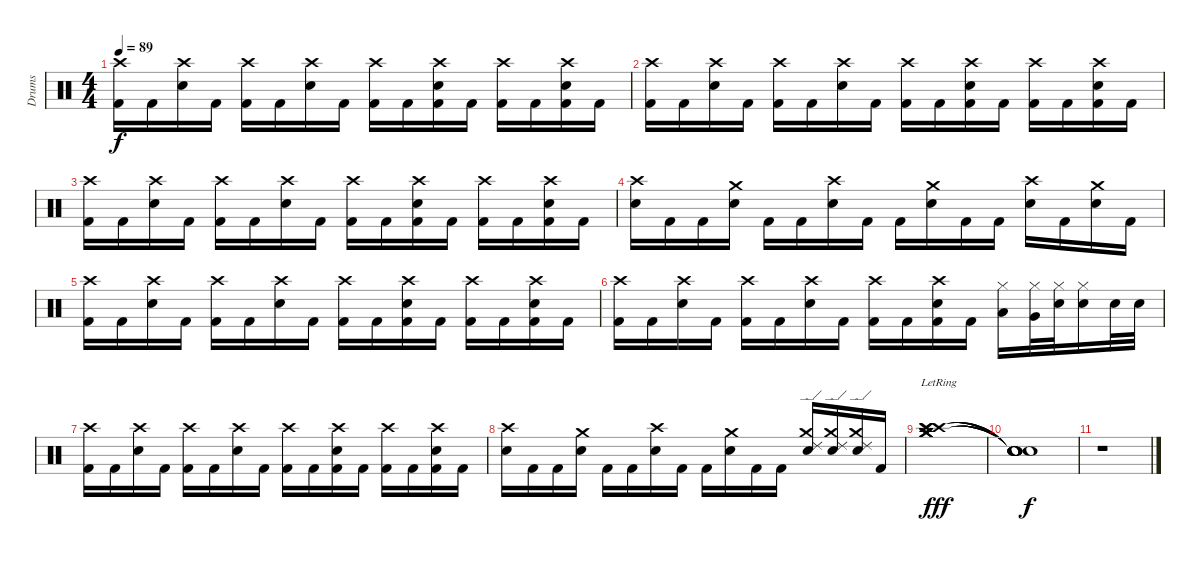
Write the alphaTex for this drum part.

\track ("Drums" "Drums") {instrument percussion}
\staff {score}
\articulation defaults
\ts (4 4)
\tempo 89
\clef neutral
\ks c
("Crash high (hit)" "Kick (hit) 2").16{dy f} "Kick (hit) 2".16 ("Crash high (hit)" "Electric Snare (hit)").16 "Kick (hit) 2".16 ("Crash high (hit)" "Kick (hit) 2").16 "Kick (hit) 2".16 ("Crash high (hit)" "Electric Snare (hit)").16 "Kick (hit) 2".16 ("Crash high (hit)" "Kick (hit) 2").16 "Kick (hit) 2".16 ("Crash high (hit)" "Electric Snare (hit)" "Kick (hit) 2").16 "Kick (hit) 2".16 ("Crash high (hit)" "Kick (hit) 2").16 "Kick (hit) 2".16 ("Crash high (hit)" "Electric Snare (hit)" "Kick (hit) 2").16 "Kick (hit) 2".16 |
("Crash high (hit)" "Kick (hit) 2").16 "Kick (hit) 2".16 ("Crash high (hit)" "Electric Snare (hit)").16 "Kick (hit) 2".16 ("Crash high (hit)" "Kick (hit) 2").16 "Kick (hit) 2".16 ("Crash high (hit)" "Electric Snare (hit)").16 "Kick (hit) 2".16 ("Crash high (hit)" "Kick (hit) 2").16 "Kick (hit) 2".16 ("Crash high (hit)" "Electric Snare (hit)" "Kick (hit) 2").16 "Kick (hit) 2".16 ("Crash high (hit)" "Kick (hit) 2").16 "Kick (hit) 2".16 ("Crash high (hit)" "Electric Snare (hit)" "Kick (hit) 2").16 "Kick (hit) 2".16 |
("Crash high (hit)" "Kick (hit) 2").16 "Kick (hit) 2".16 ("Crash high (hit)" "Electric Snare (hit)").16 "Kick (hit) 2".16 ("Crash high (hit)" "Kick (hit) 2").16 "Kick (hit) 2".16 ("Crash high (hit)" "Electric Snare (hit)").16 "Kick (hit) 2".16 ("Crash high (hit)" "Kick (hit) 2").16 "Kick (hit) 2".16 ("Crash high (hit)" "Electric Snare (hit)" "Kick (hit) 2").16 "Kick (hit) 2".16 ("Crash high (hit)" "Kick (hit) 2").16 "Kick (hit) 2".16 ("Crash high (hit)" "Electric Snare (hit)" "Kick (hit) 2").16 "Kick (hit) 2".16 |
("Crash high (hit)" "Electric Snare (hit)").16 "Kick (hit) 2".16 "Kick (hit) 2".16 ("Crash medium (hit)" "Electric Snare (hit)").16 "Kick (hit) 2".16 "Kick (hit) 2".16 ("Crash high (hit)" "Electric Snare (hit)").16 "Kick (hit) 2".16 "Kick (hit) 2".16 ("Crash medium (hit)" "Electric Snare (hit)").16 "Kick (hit) 2".16 "Kick (hit) 2".16 ("Crash high (hit)" "Electric Snare (hit)").16 "Kick (hit) 2".16 ("Crash medium (hit)" "Electric Snare (hit)").16 "Kick (hit) 2".16 |
("Crash high (hit)" "Kick (hit) 2").16 "Kick (hit) 2".16 ("Crash high (hit)" "Electric Snare (hit)").16 "Kick (hit) 2".16 ("Crash high (hit)" "Kick (hit) 2").16 "Kick (hit) 2".16 ("Crash high (hit)" "Electric Snare (hit)").16 "Kick (hit) 2".16 ("Crash high (hit)" "Kick (hit) 2").16 "Kick (hit) 2".16 ("Crash high (hit)" "Electric Snare (hit)" "Kick (hit) 2").16 "Kick (hit) 2".16 ("Crash high (hit)" "Kick (hit) 2").16 "Kick (hit) 2".16 ("Crash high (hit)" "Electric Snare (hit)" "Kick (hit) 2").16 "Kick (hit) 2".16 |
("Crash high (hit)" "Kick (hit) 2").16 "Kick (hit) 2".16 ("Crash high (hit)" "Electric Snare (hit)").16 "Kick (hit) 2".16 ("Crash high (hit)" "Kick (hit) 2").16 "Kick (hit) 2".16 ("Crash high (hit)" "Electric Snare (hit)").16 "Kick (hit) 2".16 ("Crash high (hit)" "Kick (hit) 2").16 "Kick (hit) 2".16 ("Crash high (hit)" "Electric Snare (hit)" "Kick (hit) 2").16 "Kick (hit) 2".16 ("Hi-Hat (closed)" "Low Tom (hit)").16 ("Hi-Hat (closed)" "Very Low Tom (hit)").32 ("Hi-Hat (closed)" "Electric Snare (hit)").32 ("Hi-Hat (closed)" "Electric Snare (hit)").16 "Electric Snare (hit)".32 "Electric Snare (hit)".32 |
("Crash high (hit)" "Kick (hit) 2").16 "Kick (hit) 2".16 ("Crash high (hit)" "Electric Snare (hit)").16 "Kick (hit) 2".16 ("Crash high (hit)" "Kick (hit) 2").16 "Kick (hit) 2".16 ("Crash high (hit)" "Electric Snare (hit)").16 "Kick (hit) 2".16 ("Crash high (hit)" "Kick (hit) 2").16 "Kick (hit) 2".16 ("Crash high (hit)" "Electric Snare (hit)" "Kick (hit) 2").16 "Kick (hit) 2".16 ("Crash high (hit)" "Kick (hit) 2").16 "Kick (hit) 2".16 ("Crash high (hit)" "Electric Snare (hit)" "Kick (hit) 2").16 "Kick (hit) 2".16 |
("Crash high (hit)" "Electric Snare (hit)").16 "Kick (hit) 2".16 "Kick (hit) 2".16 ("Crash medium (hit)" "Electric Snare (hit)").16 "Kick (hit) 2".16 "Kick (hit) 2".16 ("Crash high (hit)" "Electric Snare (hit)").16 "Kick (hit) 2".16 "Kick (hit) 2".16 ("Crash medium (hit)" "Electric Snare (hit)").16 "Kick (hit) 2".16 "Kick (hit) 2".16 ("Crash medium (hit)" "Ride (edge) 2" "Electric Snare (hit)").16 ("Crash medium (hit)" "Ride (edge) 2" "Electric Snare (hit)").16 ("Crash medium (hit)" "Ride (edge) 2" "Electric Snare (hit)").16 "Kick (hit) 2".16 |
("Crash high (hit)"{lr} "Crash high (hit)"{lr} "Crash high (hit)"{lr} "Crash medium (hit)"{lr} "Crash medium (hit)"{lr} "Crash medium (hit)"{lr}).1{dy fff} |
("Snare (hit)"{t} "Snare (hit)"{t} "Snare (hit)"{t} "Snare (hit)"{t} "Snare (hit)"{t} "Snare (hit)"{t}).1{dy f} |
r.1
